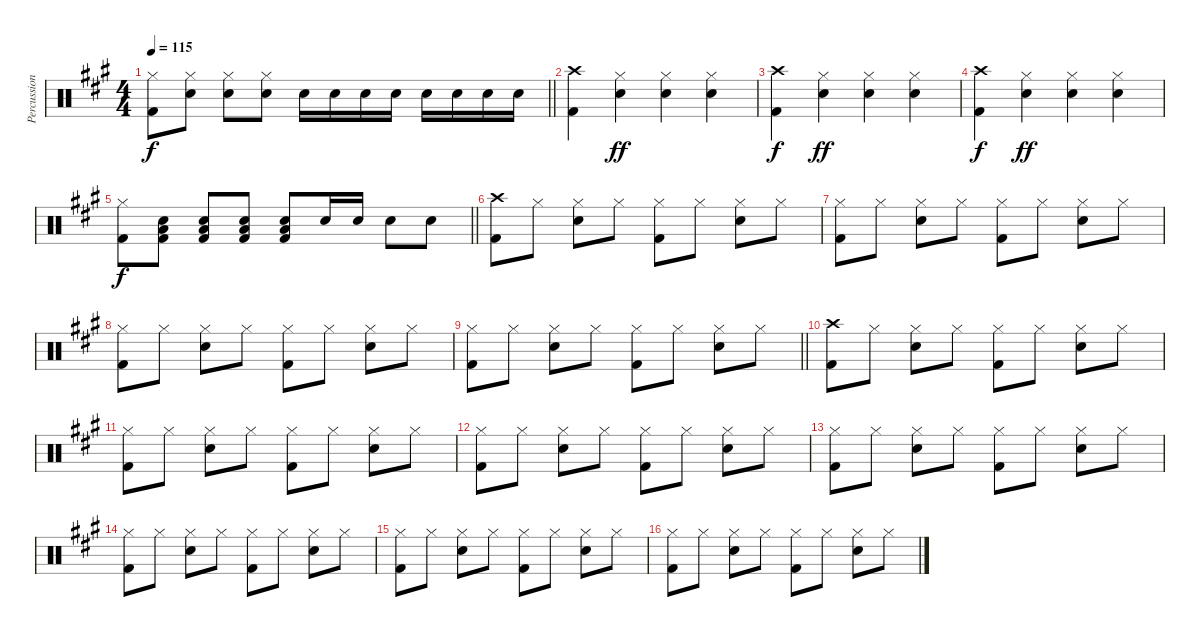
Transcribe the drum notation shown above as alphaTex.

\track ("Percussion" "Percussion") {instrument percussion}
\staff {score}
\articulation defaults
\ts (4 4)
\tempo 115
\clef neutral
\barLineRight lightlight
\ks a
("Hi-Hat (closed)" "Kick (hit) 2").8{dy f} ("Hi-Hat (closed)" "Snare (hit) 2").8 ("Hi-Hat (closed)" "Snare (hit) 2").8 ("Hi-Hat (closed)" "Snare (hit) 2").8 "Snare (hit) 2".16 "Snare (hit) 2".16 "Snare (hit) 2".16 "Snare (hit) 2".16 "Snare (hit) 2".16 "Snare (hit) 2".16 "Snare (hit) 2".16 "Snare (hit) 2".16 |
("Crash high (hit)" "Kick (hit) 2").4 ("Hi-Hat (closed)" "Snare (hit) 2").4{dy ff} ("Hi-Hat (closed)" "Snare (hit) 2").4 ("Hi-Hat (closed)" "Snare (hit) 2").4 |
("Crash high (hit)" "Kick (hit) 2").4{dy f} ("Hi-Hat (closed)" "Snare (hit) 2").4{dy ff} ("Hi-Hat (closed)" "Snare (hit) 2").4 ("Hi-Hat (closed)" "Snare (hit) 2").4 |
("Crash high (hit)" "Kick (hit) 2").4{dy f} ("Hi-Hat (closed)" "Snare (hit) 2").4{dy ff} ("Hi-Hat (closed)" "Snare (hit) 2").4 ("Hi-Hat (closed)" "Snare (hit) 2").4 |
\barLineRight lightlight
("Hi-Hat (closed)" "Kick (hit) 2").8{dy f} ("Snare (hit) 2" "Low Floor Tom (hit)" "Kick (hit) 2").8 ("Snare (hit) 2" "Low Floor Tom (hit)" "Kick (hit) 2").8 ("Snare (hit) 2" "Low Floor Tom (hit)" "Kick (hit) 2").8 ("Snare (hit) 2" "Low Floor Tom (hit)" "Kick (hit) 2").8 "Snare (hit) 2".16 "Snare (hit) 2".16 "Snare (hit) 2".8 "Snare (hit) 2".8 |
("Crash high (hit)" "Kick (hit) 2").8 "Hi-Hat (closed)".8 ("Hi-Hat (closed)" "Snare (hit) 2").8 "Hi-Hat (closed)".8 ("Hi-Hat (closed)" "Kick (hit) 2").8 "Hi-Hat (closed)".8 ("Hi-Hat (closed)" "Snare (hit) 2").8 "Hi-Hat (closed)".8 |
("Hi-Hat (closed)" "Kick (hit) 2").8 "Hi-Hat (closed)".8 ("Hi-Hat (closed)" "Snare (hit) 2").8 "Hi-Hat (closed)".8 ("Hi-Hat (closed)" "Kick (hit) 2").8 "Hi-Hat (closed)".8 ("Hi-Hat (closed)" "Snare (hit) 2").8 "Hi-Hat (closed)".8 |
("Hi-Hat (closed)" "Kick (hit) 2").8 "Hi-Hat (closed)".8 ("Hi-Hat (closed)" "Snare (hit) 2").8 "Hi-Hat (closed)".8 ("Hi-Hat (closed)" "Kick (hit) 2").8 "Hi-Hat (closed)".8 ("Hi-Hat (closed)" "Snare (hit) 2").8 "Hi-Hat (closed)".8 |
\barLineRight lightlight
("Hi-Hat (closed)" "Kick (hit) 2").8 "Hi-Hat (closed)".8 ("Hi-Hat (closed)" "Snare (hit) 2").8 "Hi-Hat (closed)".8 ("Hi-Hat (closed)" "Kick (hit) 2").8 "Hi-Hat (closed)".8 ("Hi-Hat (closed)" "Snare (hit) 2").8 "Hi-Hat (closed)".8 |
("Crash high (hit)" "Kick (hit) 2").8 "Hi-Hat (closed)".8 ("Hi-Hat (closed)" "Snare (hit) 2").8 "Hi-Hat (closed)".8 ("Hi-Hat (closed)" "Kick (hit) 2").8 "Hi-Hat (closed)".8 ("Hi-Hat (closed)" "Snare (hit) 2").8 "Hi-Hat (closed)".8 |
("Hi-Hat (closed)" "Kick (hit) 2").8 "Hi-Hat (closed)".8 ("Hi-Hat (closed)" "Snare (hit) 2").8 "Hi-Hat (closed)".8 ("Hi-Hat (closed)" "Kick (hit) 2").8 "Hi-Hat (closed)".8 ("Hi-Hat (closed)" "Snare (hit) 2").8 "Hi-Hat (closed)".8 |
("Hi-Hat (closed)" "Kick (hit) 2").8 "Hi-Hat (closed)".8 ("Hi-Hat (closed)" "Snare (hit) 2").8 "Hi-Hat (closed)".8 ("Hi-Hat (closed)" "Kick (hit) 2").8 "Hi-Hat (closed)".8 ("Hi-Hat (closed)" "Snare (hit) 2").8 "Hi-Hat (closed)".8 |
("Hi-Hat (closed)" "Kick (hit) 2").8 "Hi-Hat (closed)".8 ("Hi-Hat (closed)" "Snare (hit) 2").8 "Hi-Hat (closed)".8 ("Hi-Hat (closed)" "Kick (hit) 2").8 "Hi-Hat (closed)".8 ("Hi-Hat (closed)" "Snare (hit) 2").8 "Hi-Hat (closed)".8 |
("Hi-Hat (closed)" "Kick (hit) 2").8 "Hi-Hat (closed)".8 ("Hi-Hat (closed)" "Snare (hit) 2").8 "Hi-Hat (closed)".8 ("Hi-Hat (closed)" "Kick (hit) 2").8 "Hi-Hat (closed)".8 ("Hi-Hat (closed)" "Snare (hit) 2").8 "Hi-Hat (closed)".8 |
("Hi-Hat (closed)" "Kick (hit) 2").8 "Hi-Hat (closed)".8 ("Hi-Hat (closed)" "Snare (hit) 2").8 "Hi-Hat (closed)".8 ("Hi-Hat (closed)" "Kick (hit) 2").8 "Hi-Hat (closed)".8 ("Hi-Hat (closed)" "Snare (hit) 2").8 "Hi-Hat (closed)".8 |
("Hi-Hat (closed)" "Kick (hit) 2").8 "Hi-Hat (closed)".8 ("Hi-Hat (closed)" "Snare (hit) 2").8 "Hi-Hat (closed)".8 ("Hi-Hat (closed)" "Kick (hit) 2").8 "Hi-Hat (closed)".8 ("Hi-Hat (closed)" "Snare (hit) 2").8 "Hi-Hat (closed)".8
